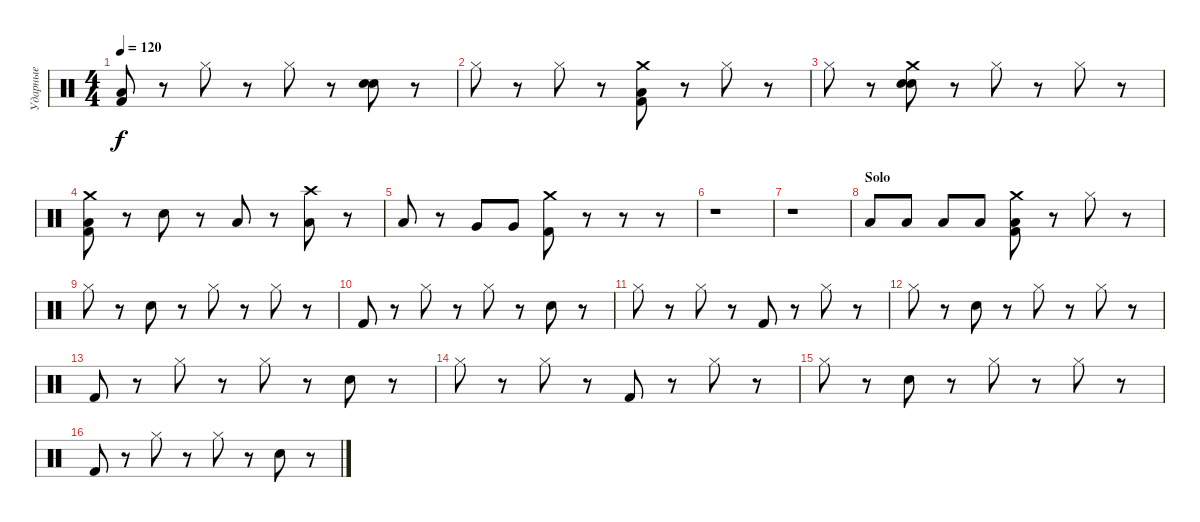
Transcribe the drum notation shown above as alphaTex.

\track ("Ударные" "Ударные") {instrument percussion}
\staff {score}
\articulation defaults
\ts (4 4)
\tempo 120
\clef neutral
\ks c
("Kick (hit) 2" "Low Floor Tom (hit)").8{dy f} r.8 "Hi-Hat (closed)".8 r.8 "Hi-Hat (closed)".8 r.8 ("Snare (hit) 2" "Electric Snare (hit)").8 r.8 |
"Hi-Hat (closed)".8 r.8 "Hi-Hat (closed)".8 r.8 ("Crash medium (hit)" "Kick (hit) 2" "Low Floor Tom (hit)").8 r.8 "Hi-Hat (closed)".8 r.8 |
"Hi-Hat (closed)".8 r.8 ("Crash medium (hit)" "Snare (hit) 2" "Electric Snare (hit)").8 r.8 "Hi-Hat (closed)".8 r.8 "Hi-Hat (closed)".8 r.8 |
("Crash medium (hit)" "Kick (hit) 2" "Low Floor Tom (hit)").8 r.8 "Electric Snare (hit)".8 r.8 "Low Tom (hit)".8 r.8 ("Crash high (hit)" "Low Tom (hit)").8 r.8 |
"Low Tom (hit)".8 r.8 "Very Low Tom (hit)".8 "Very Low Tom (hit)".8 ("Crash medium (hit)" "Kick (hit) 2").8 r.8 r.8 r.8 |
r.1 |
r.1 |
\section ("" "Solo")
"Low Tom (hit)".8 "Low Tom (hit)".8 "Low Floor Tom (hit)".8 "Low Floor Tom (hit)".8 ("Crash medium (hit)" "Kick (hit) 2" "Low Floor Tom (hit)").8 r.8 "Hi-Hat (closed)".8 r.8 |
"Hi-Hat (closed)".8 r.8 "Snare (hit) 2".8 r.8 "Hi-Hat (closed)".8 r.8 "Hi-Hat (closed)".8 r.8 |
"Kick (hit) 2".8 r.8 "Hi-Hat (closed)".8 r.8 "Hi-Hat (closed)".8 r.8 "Snare (hit) 2".8 r.8 |
"Hi-Hat (closed)".8 r.8 "Hi-Hat (closed)".8 r.8 "Kick (hit) 2".8 r.8 "Hi-Hat (closed)".8 r.8 |
"Hi-Hat (closed)".8 r.8 "Snare (hit) 2".8 r.8 "Hi-Hat (closed)".8 r.8 "Hi-Hat (closed)".8 r.8 |
"Kick (hit) 2".8 r.8 "Hi-Hat (closed)".8 r.8 "Hi-Hat (closed)".8 r.8 "Snare (hit) 2".8 r.8 |
"Hi-Hat (closed)".8 r.8 "Hi-Hat (closed)".8 r.8 "Kick (hit) 2".8 r.8 "Hi-Hat (closed)".8 r.8 |
"Hi-Hat (closed)".8 r.8 "Snare (hit) 2".8 r.8 "Hi-Hat (closed)".8 r.8 "Hi-Hat (closed)".8 r.8 |
"Kick (hit) 2".8 r.8 "Hi-Hat (closed)".8 r.8 "Hi-Hat (closed)".8 r.8 "Snare (hit) 2".8 r.8
